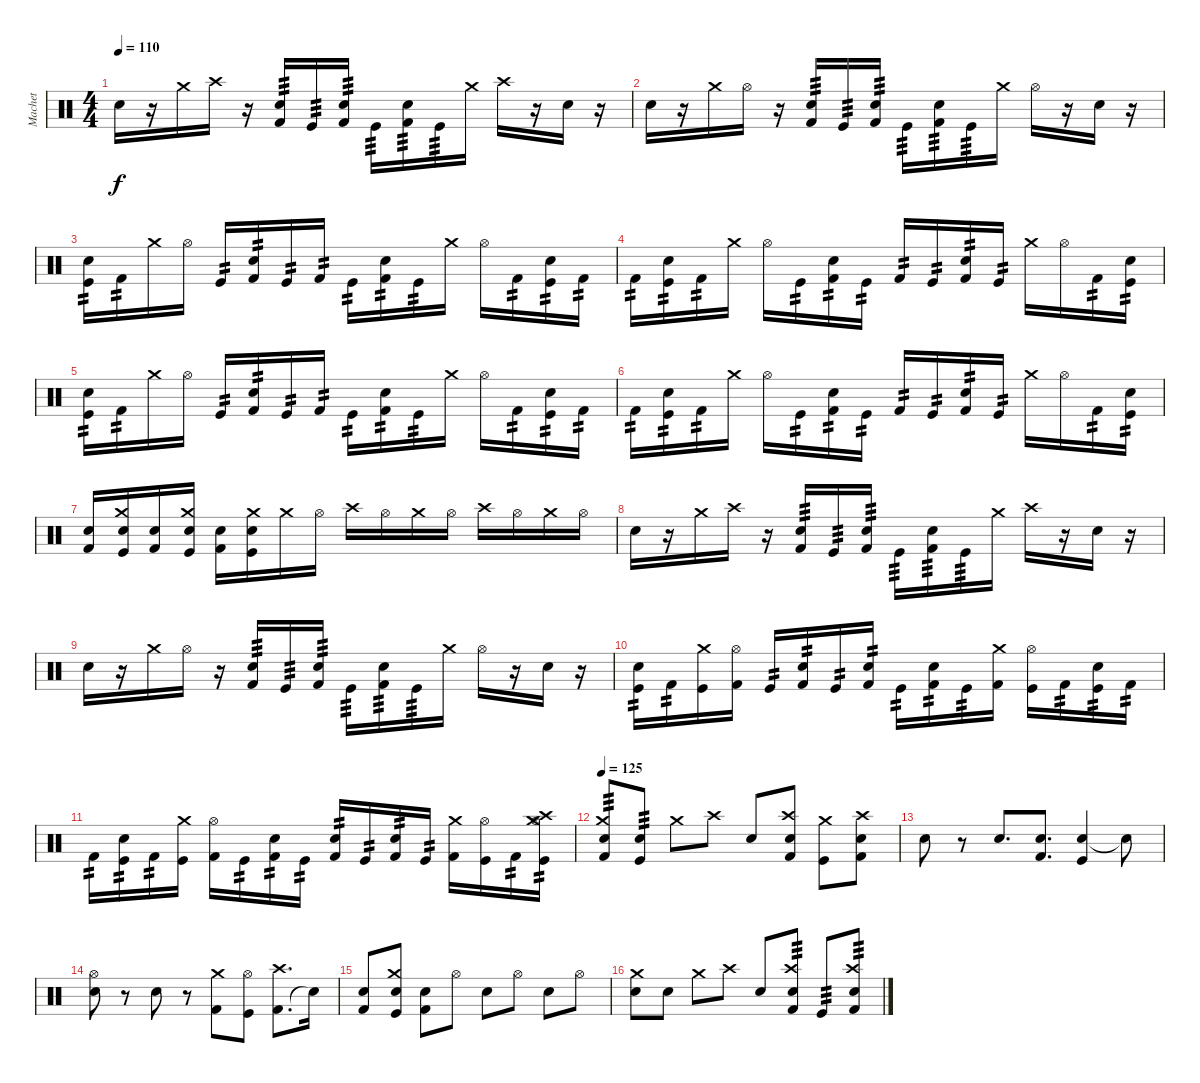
\track ("Machet" "Machet") {instrument percussion}
\staff {score}
\articulation defaults
\ts (4 4)
\tempo 110
\clef neutral
\ks c "Electric Snare (hit)".16{dy f}
r.16 "Crash medium (hit)".16 "Crash high (hit)".16 r.16 ("Electric Snare (hit)" "Kick (hit) 2").16{tp 3} "Kick (hit)".16{tp 3} ("Electric Snare (hit)" "Kick (hit) 2").16{tp 3} "Kick (hit)".16{tp 3} ("Electric Snare (hit)" "Kick (hit) 2").16{tp 3} "Kick (hit)".16{tp 3} "Crash medium (hit)".16 "Crash high (hit)".16 r.16 "Electric Snare (hit)".16 r.16 |
"Electric Snare (hit)".16 r.16 "Crash medium (hit)".16 "Hi-Hat (open)".16 r.16 ("Electric Snare (hit)" "Kick (hit) 2").16{tp 3} "Kick (hit)".16{tp 3} ("Electric Snare (hit)" "Kick (hit) 2").16{tp 3} "Kick (hit)".16{tp 3} ("Electric Snare (hit)" "Kick (hit) 2").16{tp 3} "Kick (hit)".16{tp 3} "Crash medium (hit)".16 "Hi-Hat (open)".16 r.16 "Electric Snare (hit)".16 r.16 |
("Electric Snare (hit)" "Kick (hit)").16{tp 2} "Kick (hit) 2".16{tp 2} "Crash medium (hit)".16 "Hi-Hat (open)".16 "Kick (hit)".16{tp 2} ("Electric Snare (hit)" "Kick (hit) 2").16{tp 2} "Kick (hit)".16{tp 2} "Kick (hit) 2".16{tp 2} "Kick (hit)".16{tp 2} ("Electric Snare (hit)" "Kick (hit) 2").16{tp 2} "Kick (hit)".16{tp 2} "Crash medium (hit)".16 "Hi-Hat (open)".16 "Kick (hit) 2".16{tp 2} ("Electric Snare (hit)" "Kick (hit)").16{tp 2} "Kick (hit) 2".16{tp 2} |
"Kick (hit) 2".16{tp 2} ("Electric Snare (hit)" "Kick (hit)").16{tp 2} "Kick (hit) 2".16{tp 2} "Crash medium (hit)".16 "Hi-Hat (open)".16 "Kick (hit)".16{tp 2} ("Electric Snare (hit)" "Kick (hit) 2").16{tp 2} "Kick (hit)".16{tp 2} "Kick (hit) 2".16{tp 2} "Kick (hit)".16{tp 2} ("Electric Snare (hit)" "Kick (hit) 2").16{tp 2} "Kick (hit)".16{tp 2} "Crash medium (hit)".16 "Hi-Hat (open)".16 "Kick (hit) 2".16{tp 2} ("Electric Snare (hit)" "Kick (hit)").16{tp 2} |
("Electric Snare (hit)" "Kick (hit)").16{tp 2} "Kick (hit) 2".16{tp 2} "Crash medium (hit)".16 "Hi-Hat (open)".16 "Kick (hit)".16{tp 2} ("Electric Snare (hit)" "Kick (hit) 2").16{tp 2} "Kick (hit)".16{tp 2} "Kick (hit) 2".16{tp 2} "Kick (hit)".16{tp 2} ("Electric Snare (hit)" "Kick (hit) 2").16{tp 2} "Kick (hit)".16{tp 2} "Crash medium (hit)".16 "Hi-Hat (open)".16 "Kick (hit) 2".16{tp 2} ("Electric Snare (hit)" "Kick (hit)").16{tp 2} "Kick (hit) 2".16{tp 2} |
"Kick (hit) 2".16{tp 2} ("Electric Snare (hit)" "Kick (hit)").16{tp 2} "Kick (hit) 2".16{tp 2} "Crash medium (hit)".16 "Hi-Hat (open)".16 "Kick (hit)".16{tp 2} ("Electric Snare (hit)" "Kick (hit) 2").16{tp 2} "Kick (hit)".16{tp 2} "Kick (hit) 2".16{tp 2} "Kick (hit)".16{tp 2} ("Electric Snare (hit)" "Kick (hit) 2").16{tp 2} "Kick (hit)".16{tp 2} "Crash medium (hit)".16 "Hi-Hat (open)".16 "Kick (hit) 2".16{tp 2} ("Electric Snare (hit)" "Kick (hit)").16{tp 2} |
("Electric Snare (hit)" "Kick (hit) 2").16 ("Crash medium (hit)" "Electric Snare (hit)" "Kick (hit)").16 ("Electric Snare (hit)" "Kick (hit) 2").16 ("Crash medium (hit)" "Electric Snare (hit)" "Kick (hit)").16 ("Electric Snare (hit)" "Kick (hit) 2").16 ("Crash medium (hit)" "Electric Snare (hit)" "Kick (hit)").16 "Crash medium (hit)".16 "Hi-Hat (open)".16 "Crash high (hit)".16 "Hi-Hat (open)".16 "Crash medium (hit)".16 "Hi-Hat (open)".16 "Crash high (hit)".16 "Hi-Hat (open)".16 "Crash medium (hit)".16 "Hi-Hat (open)".16 |
"Electric Snare (hit)".16 r.16 "Crash medium (hit)".16 "Crash high (hit)".16 r.16 ("Electric Snare (hit)" "Kick (hit) 2").16{tp 3} "Kick (hit)".16{tp 3} ("Electric Snare (hit)" "Kick (hit) 2").16{tp 3} "Kick (hit)".16{tp 3} ("Electric Snare (hit)" "Kick (hit) 2").16{tp 3} "Kick (hit)".16{tp 3} "Crash medium (hit)".16 "Crash high (hit)".16 r.16 "Electric Snare (hit)".16 r.16 |
"Electric Snare (hit)".16 r.16 "Crash medium (hit)".16 "Hi-Hat (open)".16 r.16 ("Electric Snare (hit)" "Kick (hit) 2").16{tp 3} "Kick (hit)".16{tp 3} ("Electric Snare (hit)" "Kick (hit) 2").16{tp 3} "Kick (hit)".16{tp 3} ("Electric Snare (hit)" "Kick (hit) 2").16{tp 3} "Kick (hit)".16{tp 3} "Crash medium (hit)".16 "Hi-Hat (open)".16 r.16 "Electric Snare (hit)".16 r.16 |
("Electric Snare (hit)" "Kick (hit)").16{tp 2} "Kick (hit) 2".16{tp 2} ("Crash medium (hit)" "Kick (hit)").16 ("Hi-Hat (open)" "Kick (hit) 2").16 "Kick (hit)".16{tp 2} ("Electric Snare (hit)" "Kick (hit) 2").16{tp 2} "Kick (hit)".16{tp 2} ("Electric Snare (hit)" "Kick (hit) 2").16{tp 2} "Kick (hit)".16{tp 2} ("Electric Snare (hit)" "Kick (hit) 2").16{tp 2} "Kick (hit)".16{tp 2} ("Crash medium (hit)" "Kick (hit) 2").16 ("Hi-Hat (open)" "Kick (hit)").16 "Kick (hit) 2".16{tp 2} ("Electric Snare (hit)" "Kick (hit)").16{tp 2} "Kick (hit) 2".16{tp 2} |
"Kick (hit) 2".16{tp 2} ("Electric Snare (hit)" "Kick (hit)").16{tp 2} "Kick (hit) 2".16{tp 2} ("Crash medium (hit)" "Kick (hit)").16 ("Hi-Hat (open)" "Kick (hit) 2").16 "Kick (hit)".16{tp 2} ("Electric Snare (hit)" "Kick (hit) 2").16{tp 2} "Kick (hit)".16{tp 2} ("Electric Snare (hit)" "Kick (hit) 2").16{tp 2} "Kick (hit)".16{tp 2} ("Electric Snare (hit)" "Kick (hit) 2").16{tp 2} "Kick (hit)".16{tp 2} ("Crash medium (hit)" "Kick (hit) 2").16 ("Hi-Hat (open)" "Kick (hit)").16 "Kick (hit) 2".16{tp 2} ("Hi-Hat (open)" "Crash high (hit)" "Crash medium (hit)" "Kick (hit)").16{tp 2} |
\tempo 125
("Crash medium (hit)" "Electric Snare (hit)" "Kick (hit) 2").8{tp 3} ("Electric Snare (hit)" "Kick (hit)").8{tp 3} "Crash medium (hit)".8 "Crash high (hit)".8 "Electric Snare (hit)".8 ("Crash high (hit)" "Electric Snare (hit)" "Kick (hit) 2").8 ("Crash medium (hit)" "Kick (hit)").8 ("Crash high (hit)" "Electric Snare (hit)" "Kick (hit) 2").8 |
"Electric Snare (hit)".8 r.8 "Electric Snare (hit)".8{d} ("Electric Snare (hit)" "Kick (hit) 2").8{d} ("Electric Snare (hit)" "Kick (hit)").4 "Electric Snare (hit)"{t}.8 |
("Hi-Hat (open)" "Electric Snare (hit)").8 r.8 "Electric Snare (hit)".8 r.8 ("Kick (hit) 2" "Crash medium (hit)").8 ("Kick (hit)" "Hi-Hat (open)").8 ("Kick (hit) 2" "Crash high (hit)").8{d} "Snare (hit)"{t}.16 |
("Kick (hit) 2" "Electric Snare (hit)").8 ("Kick (hit)" "Crash medium (hit)" "Electric Snare (hit)").8 ("Kick (hit) 2" "Electric Snare (hit)").8 "Hi-Hat (open)".8 "Electric Snare (hit)".8 "Hi-Hat (open)".8 "Electric Snare (hit)".8 "Hi-Hat (open)".8 |
("Crash medium (hit)" "Electric Snare (hit)").8 "Electric Snare (hit)".8 "Crash medium (hit)".8 "Crash high (hit)".8 "Electric Snare (hit)".8 ("Crash high (hit)" "Electric Snare (hit)" "Kick (hit) 2").8{tp 3} "Kick (hit)".8{tp 3} ("Crash high (hit)" "Electric Snare (hit)" "Kick (hit) 2").8{tp 3}
